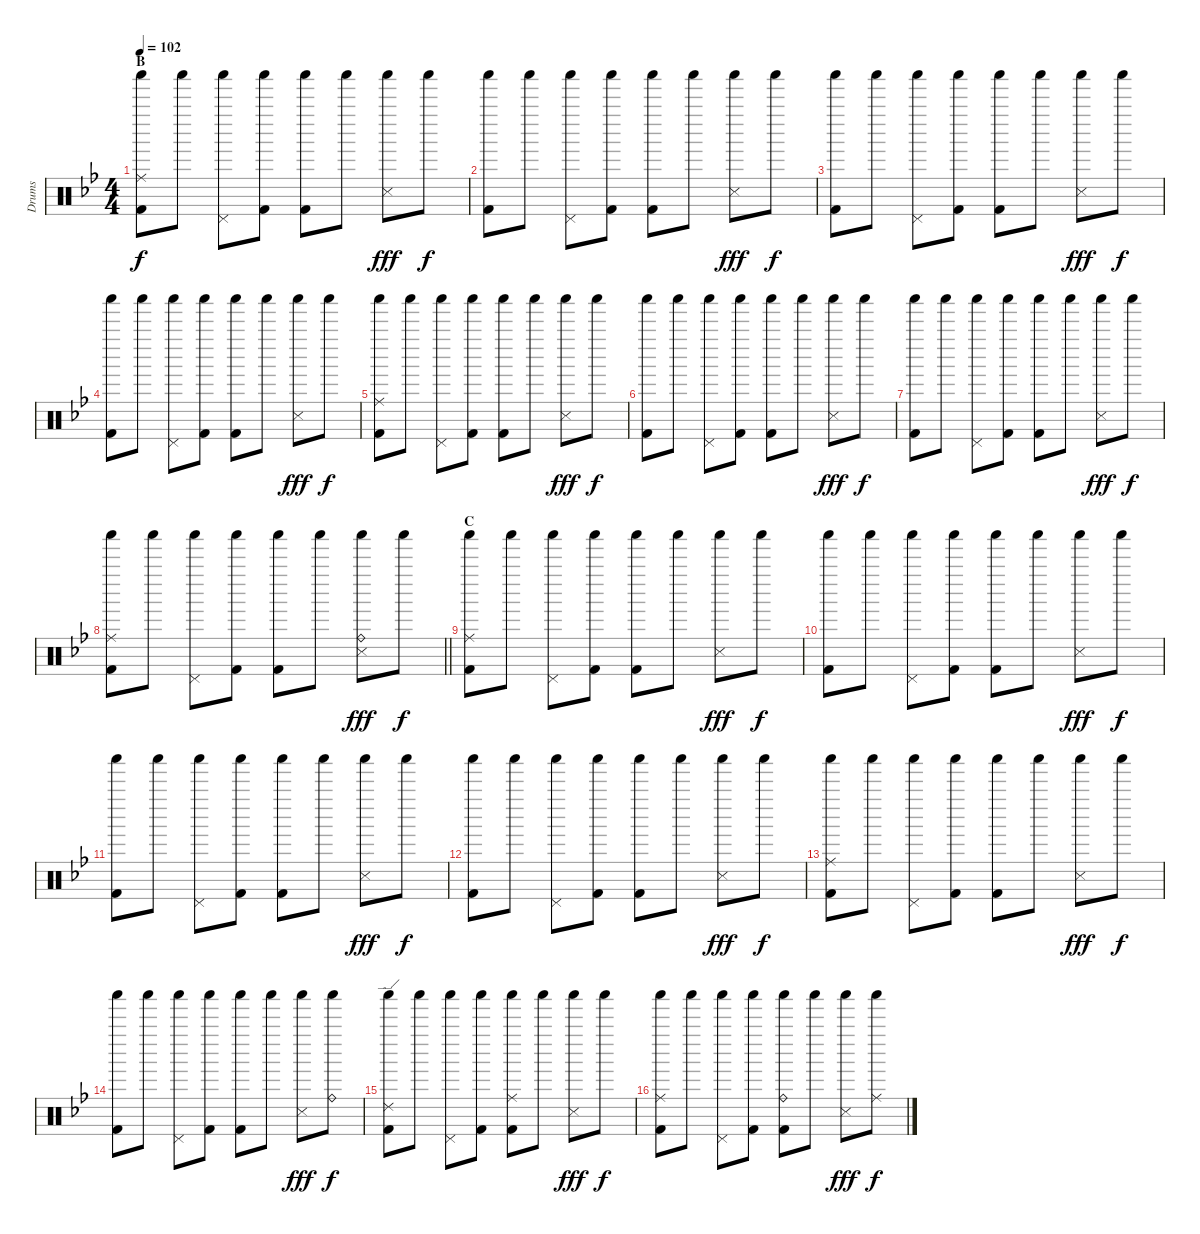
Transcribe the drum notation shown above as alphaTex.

\track ("Drums" "Drums") {instrument percussion}
\staff {score}
\articulation defaults
\ts (4 4)
\section ("" "B")
\tempo 102
\clef neutral
\ks bb
("Shaker (hit)" "Ride (middle)" "Kick (hit) 2").8{dy f} "Shaker (hit)".8 ("Shaker (hit)" "Pedal Hi-Hat (hit)").8 ("Shaker (hit)" "Kick (hit) 2").8 ("Shaker (hit)" "Kick (hit) 2").8 "Shaker (hit)".8 ("Shaker (hit)" "Snare (side stick) 3").8{dy fff} "Shaker (hit)".8{dy f} |
("Shaker (hit)" "Kick (hit) 2").8 "Shaker (hit)".8 ("Shaker (hit)" "Pedal Hi-Hat (hit)").8 ("Shaker (hit)" "Kick (hit) 2").8 ("Shaker (hit)" "Kick (hit) 2").8 "Shaker (hit)".8 ("Shaker (hit)" "Snare (side stick) 3").8{dy fff} "Shaker (hit)".8{dy f} |
("Shaker (hit)" "Kick (hit) 2").8 "Shaker (hit)".8 ("Shaker (hit)" "Pedal Hi-Hat (hit)").8 ("Shaker (hit)" "Kick (hit) 2").8 ("Shaker (hit)" "Kick (hit) 2").8 "Shaker (hit)".8 ("Shaker (hit)" "Snare (side stick) 3").8{dy fff} "Shaker (hit)".8{dy f} |
("Shaker (hit)" "Kick (hit) 2").8 "Shaker (hit)".8 ("Shaker (hit)" "Pedal Hi-Hat (hit)").8 ("Shaker (hit)" "Kick (hit) 2").8 ("Shaker (hit)" "Kick (hit) 2").8 "Shaker (hit)".8 ("Shaker (hit)" "Snare (side stick) 3").8{dy fff} "Shaker (hit)".8{dy f} |
("Shaker (hit)" "Ride (middle)" "Kick (hit) 2").8 "Shaker (hit)".8 ("Shaker (hit)" "Pedal Hi-Hat (hit)").8 ("Shaker (hit)" "Kick (hit) 2").8 ("Shaker (hit)" "Kick (hit) 2").8 "Shaker (hit)".8 ("Shaker (hit)" "Snare (side stick) 3").8{dy fff} "Shaker (hit)".8{dy f} |
("Shaker (hit)" "Kick (hit) 2").8 "Shaker (hit)".8 ("Shaker (hit)" "Pedal Hi-Hat (hit)").8 ("Shaker (hit)" "Kick (hit) 2").8 ("Shaker (hit)" "Kick (hit) 2").8 "Shaker (hit)".8 ("Shaker (hit)" "Snare (side stick) 3").8{dy fff} "Shaker (hit)".8{dy f} |
("Shaker (hit)" "Kick (hit) 2").8 "Shaker (hit)".8 ("Shaker (hit)" "Pedal Hi-Hat (hit)").8 ("Shaker (hit)" "Kick (hit) 2").8 ("Shaker (hit)" "Kick (hit) 2").8 "Shaker (hit)".8 ("Shaker (hit)" "Snare (side stick) 3").8{dy fff} "Shaker (hit)".8{dy f} |
\barLineRight lightlight
("Shaker (hit)" "Ride (middle)" "Kick (hit) 2").8 "Shaker (hit)".8 ("Shaker (hit)" "Pedal Hi-Hat (hit)").8 ("Shaker (hit)" "Kick (hit) 2").8 ("Shaker (hit)" "Kick (hit) 2").8 "Shaker (hit)".8 ("Shaker (hit)" "Ride (bell)" "Snare (side stick) 3").8{dy fff} "Shaker (hit)".8{dy f} |
\section ("" "C")
("Shaker (hit)" "Ride (middle)" "Kick (hit) 2").8 "Shaker (hit)".8 ("Shaker (hit)" "Pedal Hi-Hat (hit)").8 ("Shaker (hit)" "Kick (hit) 2").8 ("Shaker (hit)" "Kick (hit) 2").8 "Shaker (hit)".8 ("Shaker (hit)" "Snare (side stick) 3").8{dy fff} "Shaker (hit)".8{dy f} |
("Shaker (hit)" "Kick (hit) 2").8 "Shaker (hit)".8 ("Shaker (hit)" "Pedal Hi-Hat (hit)").8 ("Shaker (hit)" "Kick (hit) 2").8 ("Shaker (hit)" "Kick (hit) 2").8 "Shaker (hit)".8 ("Shaker (hit)" "Snare (side stick) 3").8{dy fff} "Shaker (hit)".8{dy f} |
("Shaker (hit)" "Kick (hit) 2").8 "Shaker (hit)".8 ("Shaker (hit)" "Pedal Hi-Hat (hit)").8 ("Shaker (hit)" "Kick (hit) 2").8 ("Shaker (hit)" "Kick (hit) 2").8 "Shaker (hit)".8 ("Shaker (hit)" "Snare (side stick) 3").8{dy fff} "Shaker (hit)".8{dy f} |
("Shaker (hit)" "Kick (hit) 2").8 "Shaker (hit)".8 ("Shaker (hit)" "Pedal Hi-Hat (hit)").8 ("Shaker (hit)" "Kick (hit) 2").8 ("Shaker (hit)" "Kick (hit) 2").8 "Shaker (hit)".8 ("Shaker (hit)" "Snare (side stick) 3").8{dy fff} "Shaker (hit)".8{dy f} |
("Shaker (hit)" "Ride (middle)" "Kick (hit) 2").8 "Shaker (hit)".8 ("Shaker (hit)" "Pedal Hi-Hat (hit)").8 ("Shaker (hit)" "Kick (hit) 2").8 ("Shaker (hit)" "Kick (hit) 2").8 "Shaker (hit)".8 ("Shaker (hit)" "Snare (side stick) 3").8{dy fff} "Shaker (hit)".8{dy f} |
("Shaker (hit)" "Kick (hit) 2").8 "Shaker (hit)".8 ("Shaker (hit)" "Pedal Hi-Hat (hit)").8 ("Shaker (hit)" "Kick (hit) 2").8 ("Shaker (hit)" "Kick (hit) 2").8 "Shaker (hit)".8 ("Shaker (hit)" "Snare (side stick) 3").8{dy fff} ("Shaker (hit)" "Ride (bell)").8{dy f} |
("Shaker (hit)" "Ride (edge) 2" "Kick (hit) 2").8 "Shaker (hit)".8 ("Shaker (hit)" "Pedal Hi-Hat (hit)").8 ("Shaker (hit)" "Kick (hit) 2").8 ("Shaker (hit)" "Ride (middle)" "Kick (hit) 2").8 "Shaker (hit)".8 ("Shaker (hit)" "Snare (side stick) 3").8{dy fff} "Shaker (hit)".8{dy f} |
("Shaker (hit)" "Ride (middle)" "Kick (hit) 2").8 "Shaker (hit)".8 ("Shaker (hit)" "Pedal Hi-Hat (hit)").8 ("Shaker (hit)" "Kick (hit) 2").8 ("Shaker (hit)" "Ride (bell)" "Kick (hit) 2").8 "Shaker (hit)".8 ("Shaker (hit)" "Snare (side stick) 3").8{dy fff} ("Shaker (hit)" "Ride (middle)").8{dy f}
